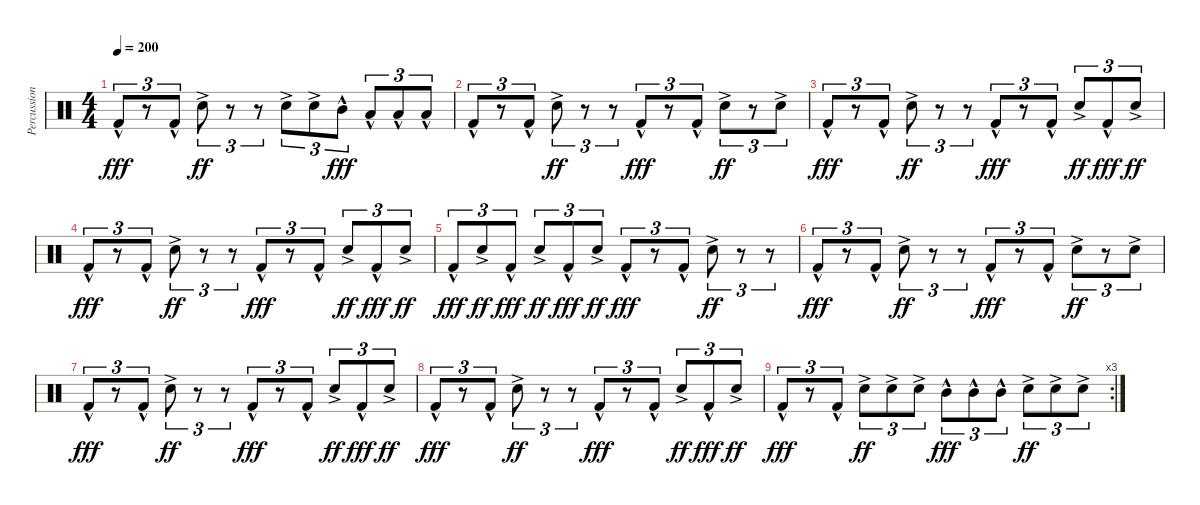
\track ("Percussion" "Percussion") {instrument percussion}
\staff {score}
\articulation defaults
\ts (4 4)
\tempo 200
\clef neutral
\ks c "Kick (hit) 2"{hac}.8{tu (3 2) dy fff}
r.8{tu (3 2)} "Kick (hit) 2"{hac}.8{tu (3 2)} "Snare (hit) 2"{ac}.8{tu (3 2) dy ff} r.8{tu (3 2)} r.8{tu (3 2)} "Snare (hit) 2"{ac}.8{tu (3 2)} "Snare (hit) 2"{ac}.8{tu (3 2)} "Mid Tom (hit)"{hac}.8{tu (3 2) dy fff} "Low Tom (hit)"{hac}.8{tu (3 2)} "Low Tom (hit)"{hac}.8{tu (3 2)} "Low Tom (hit)"{hac}.8{tu (3 2)} |
"Kick (hit) 2"{hac}.8{tu (3 2)} r.8{tu (3 2)} "Kick (hit) 2"{hac}.8{tu (3 2)} "Snare (hit) 2"{ac}.8{tu (3 2) dy ff} r.8{tu (3 2)} r.8{tu (3 2)} "Kick (hit) 2"{hac}.8{tu (3 2) dy fff} r.8{tu (3 2)} "Kick (hit) 2"{hac}.8{tu (3 2)} "Snare (hit) 2"{ac}.8{tu (3 2) dy ff} r.8{tu (3 2)} "Snare (hit) 2"{ac}.8{tu (3 2)} |
"Kick (hit) 2"{hac}.8{tu (3 2) dy fff} r.8{tu (3 2)} "Kick (hit) 2"{hac}.8{tu (3 2)} "Snare (hit) 2"{ac}.8{tu (3 2) dy ff} r.8{tu (3 2)} r.8{tu (3 2)} "Kick (hit) 2"{hac}.8{tu (3 2) dy fff} r.8{tu (3 2)} "Kick (hit) 2"{hac}.8{tu (3 2)} "Snare (hit) 2"{ac}.8{tu (3 2) dy ff} "Kick (hit) 2"{hac}.8{tu (3 2) dy fff} "Snare (hit) 2"{ac}.8{tu (3 2) dy ff} |
"Kick (hit) 2"{hac}.8{tu (3 2) dy fff} r.8{tu (3 2)} "Kick (hit) 2"{hac}.8{tu (3 2)} "Snare (hit) 2"{ac}.8{tu (3 2) dy ff} r.8{tu (3 2)} r.8{tu (3 2)} "Kick (hit) 2"{hac}.8{tu (3 2) dy fff} r.8{tu (3 2)} "Kick (hit) 2"{hac}.8{tu (3 2)} "Snare (hit) 2"{ac}.8{tu (3 2) dy ff} "Kick (hit) 2"{hac}.8{tu (3 2) dy fff} "Snare (hit) 2"{ac}.8{tu (3 2) dy ff} |
"Kick (hit) 2"{hac}.8{tu (3 2) dy fff} "Snare (hit) 2"{ac}.8{tu (3 2) dy ff} "Kick (hit) 2"{hac}.8{tu (3 2) dy fff} "Snare (hit) 2"{ac}.8{tu (3 2) dy ff} "Kick (hit) 2"{hac}.8{tu (3 2) dy fff} "Snare (hit) 2"{ac}.8{tu (3 2) dy ff} "Kick (hit) 2"{hac}.8{tu (3 2) dy fff} r.8{tu (3 2)} "Kick (hit) 2"{hac}.8{tu (3 2)} "Snare (hit) 2"{ac}.8{tu (3 2) dy ff} r.8{tu (3 2)} r.8{tu (3 2)} |
"Kick (hit) 2"{hac}.8{tu (3 2) dy fff} r.8{tu (3 2)} "Kick (hit) 2"{hac}.8{tu (3 2)} "Snare (hit) 2"{ac}.8{tu (3 2) dy ff} r.8{tu (3 2)} r.8{tu (3 2)} "Kick (hit) 2"{hac}.8{tu (3 2) dy fff} r.8{tu (3 2)} "Kick (hit) 2"{hac}.8{tu (3 2)} "Snare (hit) 2"{ac}.8{tu (3 2) dy ff} r.8{tu (3 2)} "Snare (hit) 2"{ac}.8{tu (3 2)} |
"Kick (hit) 2"{hac}.8{tu (3 2) dy fff} r.8{tu (3 2)} "Kick (hit) 2"{hac}.8{tu (3 2)} "Snare (hit) 2"{ac}.8{tu (3 2) dy ff} r.8{tu (3 2)} r.8{tu (3 2)} "Kick (hit) 2"{hac}.8{tu (3 2) dy fff} r.8{tu (3 2)} "Kick (hit) 2"{hac}.8{tu (3 2)} "Snare (hit) 2"{ac}.8{tu (3 2) dy ff} "Kick (hit) 2"{hac}.8{tu (3 2) dy fff} "Snare (hit) 2"{ac}.8{tu (3 2) dy ff} |
"Kick (hit) 2"{hac}.8{tu (3 2) dy fff} r.8{tu (3 2)} "Kick (hit) 2"{hac}.8{tu (3 2)} "Snare (hit) 2"{ac}.8{tu (3 2) dy ff} r.8{tu (3 2)} r.8{tu (3 2)} "Kick (hit) 2"{hac}.8{tu (3 2) dy fff} r.8{tu (3 2)} "Kick (hit) 2"{hac}.8{tu (3 2)} "Snare (hit) 2"{ac}.8{tu (3 2) dy ff} "Kick (hit) 2"{hac}.8{tu (3 2) dy fff} "Snare (hit) 2"{ac}.8{tu (3 2) dy ff} |
\rc 3 "Kick (hit) 2"{hac}.8{tu (3 2) dy fff}
r.8{tu (3 2)} "Kick (hit) 2"{hac}.8{tu (3 2)} "Snare (hit) 2"{ac}.8{tu (3 2) dy ff} "Snare (hit) 2"{ac}.8{tu (3 2)} "Snare (hit) 2"{ac}.8{tu (3 2)} "Mid Tom (hit)"{hac}.8{tu (3 2) dy fff} "Mid Tom (hit)"{hac}.8{tu (3 2)} "Mid Tom (hit)"{hac}.8{tu (3 2)} "Snare (hit) 2"{ac}.8{tu (3 2) dy ff} "Snare (hit) 2"{ac}.8{tu (3 2)} "Snare (hit) 2"{ac}.8{tu (3 2)}
